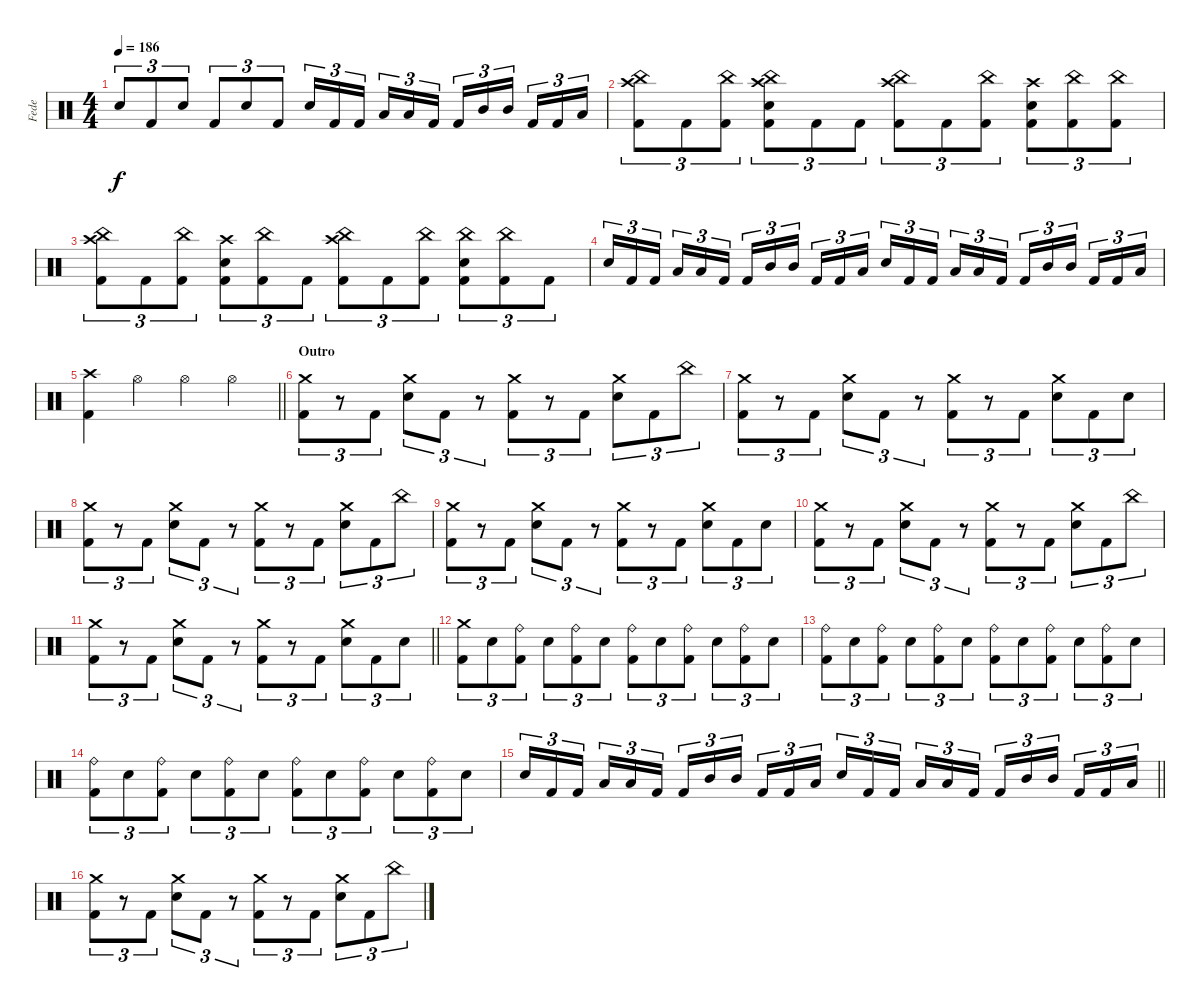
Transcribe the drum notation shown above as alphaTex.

\track ("Fede" "Fede") {instrument percussion}
\staff {score}
\articulation defaults
\ts (4 4)
\tempo 186
\clef neutral
\ks c "Snare (hit) 2".8{tu (3 2) dy f} "Kick (hit) 2".8{tu (3 2)} "Snare (hit) 2".8{tu (3 2)} "Kick (hit) 2".8{tu (3 2)} "Snare (hit) 2".8{tu (3 2)} "Kick (hit) 2".8{tu (3 2)} "Snare (hit) 2".16{tu (3 2)} "Kick (hit) 2".16{tu (3 2)} "Kick (hit) 2".16{tu (3 2) beam splitsecondary} "Low Tom (hit)".16{tu (3 2)} "Low Tom (hit)".16{tu (3 2)} "Kick (hit) 2".16{tu (3 2)} "Kick (hit) 2".16{tu (3 2)} "Mid Tom (hit)".16{tu (3 2)} "Mid Tom (hit)".16{tu (3 2) beam splitsecondary} "Kick (hit) 2".16{tu (3 2)} "Kick (hit) 2".16{tu (3 2)} "Low Tom (hit)".16{tu (3 2)}
|
("Crash high (hit)" "China (hit)" "Kick (hit) 2").8{tu (3 2)} "Kick (hit) 2".8{tu (3 2)} ("China (hit)" "Kick (hit) 2").8{tu (3 2)} ("Crash high (hit)" "China (hit)" "Snare (hit) 2" "Kick (hit) 2").8{tu (3 2)} "Kick (hit) 2".8{tu (3 2)} "Kick (hit) 2".8{tu (3 2)} ("Crash high (hit)" "China (hit)" "Kick (hit) 2").8{tu (3 2)} "Kick (hit) 2".8{tu (3 2)} ("China (hit)" "Kick (hit) 2").8{tu (3 2)} ("Crash high (hit)" "Snare (hit) 2" "Kick (hit) 2").8{tu (3 2)} ("China (hit)" "Kick (hit) 2").8{tu (3 2)} ("China (hit)" "Kick (hit) 2").8{tu (3 2)} |
("Crash high (hit)" "China (hit)" "Kick (hit) 2").8{tu (3 2)} "Kick (hit) 2".8{tu (3 2)} ("China (hit)" "Kick (hit) 2").8{tu (3 2)} ("Crash high (hit)" "Snare (hit) 2" "Kick (hit) 2").8{tu (3 2)} ("China (hit)" "Kick (hit) 2").8{tu (3 2)} "Kick (hit) 2".8{tu (3 2)} ("Crash high (hit)" "China (hit)" "Kick (hit) 2").8{tu (3 2)} "Kick (hit) 2".8{tu (3 2)} ("China (hit)" "Kick (hit) 2").8{tu (3 2)} ("Snare (hit) 2" "China (hit)" "Kick (hit) 2").8{tu (3 2)} ("China (hit)" "Kick (hit) 2").8{tu (3 2)} "Kick (hit) 2".8{tu (3 2)} |
"Snare (hit) 2".16{tu (3 2)} "Kick (hit) 2".16{tu (3 2)} "Kick (hit) 2".16{tu (3 2) beam splitsecondary} "Low Tom (hit)".16{tu (3 2)} "Low Tom (hit)".16{tu (3 2)} "Kick (hit) 2".16{tu (3 2)} "Kick (hit) 2".16{tu (3 2)} "Mid Tom (hit)".16{tu (3 2)} "Mid Tom (hit)".16{tu (3 2) beam splitsecondary} "Kick (hit) 2".16{tu (3 2)} "Kick (hit) 2".16{tu (3 2)} "Low Tom (hit)".16{tu (3 2)} "Snare (hit) 2".16{tu (3 2)} "Kick (hit) 2".16{tu (3 2)} "Kick (hit) 2".16{tu (3 2) beam splitsecondary} "Low Tom (hit)".16{tu (3 2)} "Low Tom (hit)".16{tu (3 2)} "Kick (hit) 2".16{tu (3 2)} "Kick (hit) 2".16{tu (3 2)} "Mid Tom (hit)".16{tu (3 2)} "Mid Tom (hit)".16{tu (3 2) beam splitsecondary} "Kick (hit) 2".16{tu (3 2)} "Kick (hit) 2".16{tu (3 2)} "Low Tom (hit)".16{tu (3 2)} |
\barLineRight lightlight
("Crash high (hit)" "Kick (hit) 2").4 "Hi-Hat (open)".4 "Hi-Hat (open)".4 "Hi-Hat (open)".4 |
\section ("" "Outro")
("Crash medium (hit)" "Kick (hit) 2").8{tu (3 2)} r.8{tu (3 2)} "Kick (hit) 2".8{tu (3 2)} ("Crash medium (hit)" "Snare (hit) 2").8{tu (3 2)} "Kick (hit) 2".8{tu (3 2)} r.8{tu (3 2)} ("Crash medium (hit)" "Kick (hit) 2").8{tu (3 2)} r.8{tu (3 2)} "Kick (hit) 2".8{tu (3 2)} ("Crash medium (hit)" "Snare (hit) 2").8{tu (3 2)} "Kick (hit) 2".8{tu (3 2)} "China (hit)".8{tu (3 2)} |
("Crash medium (hit)" "Kick (hit) 2").8{tu (3 2)} r.8{tu (3 2)} "Kick (hit) 2".8{tu (3 2)} ("Crash medium (hit)" "Snare (hit) 2").8{tu (3 2)} "Kick (hit) 2".8{tu (3 2)} r.8{tu (3 2)} ("Crash medium (hit)" "Kick (hit) 2").8{tu (3 2)} r.8{tu (3 2)} "Kick (hit) 2".8{tu (3 2)} ("Crash medium (hit)" "Snare (hit) 2").8{tu (3 2)} "Kick (hit) 2".8{tu (3 2)} "Snare (hit) 2".8{tu (3 2)} |
("Crash medium (hit)" "Kick (hit) 2").8{tu (3 2)} r.8{tu (3 2)} "Kick (hit) 2".8{tu (3 2)} ("Crash medium (hit)" "Snare (hit) 2").8{tu (3 2)} "Kick (hit) 2".8{tu (3 2)} r.8{tu (3 2)} ("Crash medium (hit)" "Kick (hit) 2").8{tu (3 2)} r.8{tu (3 2)} "Kick (hit) 2".8{tu (3 2)} ("Crash medium (hit)" "Snare (hit) 2").8{tu (3 2)} "Kick (hit) 2".8{tu (3 2)} "China (hit)".8{tu (3 2)} |
("Crash medium (hit)" "Kick (hit) 2").8{tu (3 2)} r.8{tu (3 2)} "Kick (hit) 2".8{tu (3 2)} ("Crash medium (hit)" "Snare (hit) 2").8{tu (3 2)} "Kick (hit) 2".8{tu (3 2)} r.8{tu (3 2)} ("Crash medium (hit)" "Kick (hit) 2").8{tu (3 2)} r.8{tu (3 2)} "Kick (hit) 2".8{tu (3 2)} ("Crash medium (hit)" "Snare (hit) 2").8{tu (3 2)} "Kick (hit) 2".8{tu (3 2)} "Snare (hit) 2".8{tu (3 2)} |
("Crash medium (hit)" "Kick (hit) 2").8{tu (3 2)} r.8{tu (3 2)} "Kick (hit) 2".8{tu (3 2)} ("Crash medium (hit)" "Snare (hit) 2").8{tu (3 2)} "Kick (hit) 2".8{tu (3 2)} r.8{tu (3 2)} ("Crash medium (hit)" "Kick (hit) 2").8{tu (3 2)} r.8{tu (3 2)} "Kick (hit) 2".8{tu (3 2)} ("Crash medium (hit)" "Snare (hit) 2").8{tu (3 2)} "Kick (hit) 2".8{tu (3 2)} "China (hit)".8{tu (3 2)} |
\barLineRight lightlight
("Crash medium (hit)" "Kick (hit) 2").8{tu (3 2)} r.8{tu (3 2)} "Kick (hit) 2".8{tu (3 2)} ("Crash medium (hit)" "Snare (hit) 2").8{tu (3 2)} "Kick (hit) 2".8{tu (3 2)} r.8{tu (3 2)} ("Crash medium (hit)" "Kick (hit) 2").8{tu (3 2)} r.8{tu (3 2)} "Kick (hit) 2".8{tu (3 2)} ("Crash medium (hit)" "Snare (hit) 2").8{tu (3 2)} "Kick (hit) 2".8{tu (3 2)} "Snare (hit) 2".8{tu (3 2)} |
("Crash medium (hit)" "Kick (hit) 2").8{tu (3 2)} "Snare (hit) 2".8{tu (3 2)} ("Ride (bell)" "Kick (hit) 2").8{tu (3 2)} "Snare (hit) 2".8{tu (3 2)} ("Ride (bell)" "Kick (hit) 2").8{tu (3 2)} "Snare (hit) 2".8{tu (3 2)} ("Ride (bell)" "Kick (hit) 2").8{tu (3 2)} "Snare (hit) 2".8{tu (3 2)} ("Ride (bell)" "Kick (hit) 2").8{tu (3 2)} "Snare (hit) 2".8{tu (3 2)} ("Ride (bell)" "Kick (hit) 2").8{tu (3 2)} "Snare (hit) 2".8{tu (3 2)} |
("Ride (bell)" "Kick (hit) 2").8{tu (3 2)} "Snare (hit) 2".8{tu (3 2)} ("Ride (bell)" "Kick (hit) 2").8{tu (3 2)} "Snare (hit) 2".8{tu (3 2)} ("Ride (bell)" "Kick (hit) 2").8{tu (3 2)} "Snare (hit) 2".8{tu (3 2)} ("Ride (bell)" "Kick (hit) 2").8{tu (3 2)} "Snare (hit) 2".8{tu (3 2)} ("Ride (bell)" "Kick (hit) 2").8{tu (3 2)} "Snare (hit) 2".8{tu (3 2)} ("Ride (bell)" "Kick (hit) 2").8{tu (3 2)} "Snare (hit) 2".8{tu (3 2)} |
("Ride (bell)" "Kick (hit) 2").8{tu (3 2)} "Snare (hit) 2".8{tu (3 2)} ("Ride (bell)" "Kick (hit) 2").8{tu (3 2)} "Snare (hit) 2".8{tu (3 2)} ("Ride (bell)" "Kick (hit) 2").8{tu (3 2)} "Snare (hit) 2".8{tu (3 2)} ("Ride (bell)" "Kick (hit) 2").8{tu (3 2)} "Snare (hit) 2".8{tu (3 2)} ("Ride (bell)" "Kick (hit) 2").8{tu (3 2)} "Snare (hit) 2".8{tu (3 2)} ("Ride (bell)" "Kick (hit) 2").8{tu (3 2)} "Snare (hit) 2".8{tu (3 2)} |
\barLineRight lightlight "Snare (hit) 2".16{tu (3 2)} "Kick (hit) 2".16{tu (3 2)} "Kick (hit) 2".16{tu (3 2) beam splitsecondary} "Low Tom (hit)".16{tu (3 2)} "Low Tom (hit)".16{tu (3 2)} "Kick (hit) 2".16{tu (3 2)} "Kick (hit) 2".16{tu (3 2)} "Mid Tom (hit)".16{tu (3 2)} "Mid Tom (hit)".16{tu (3 2) beam splitsecondary} "Kick (hit) 2".16{tu (3 2)} "Kick (hit) 2".16{tu (3 2)} "Low Tom (hit)".16{tu (3 2)} "Snare (hit) 2".16{tu (3 2)} "Kick (hit) 2".16{tu (3 2)} "Kick (hit) 2".16{tu (3 2) beam splitsecondary} "Low Tom (hit)".16{tu (3 2)} "Low Tom (hit)".16{tu (3 2)} "Kick (hit) 2".16{tu (3 2)} "Kick (hit) 2".16{tu (3 2)} "Mid Tom (hit)".16{tu (3 2)} "Mid Tom (hit)".16{tu (3 2) beam splitsecondary} "Kick (hit) 2".16{tu (3 2)} "Kick (hit) 2".16{tu (3 2)} "Low Tom (hit)".16{tu (3 2)}
|
("Crash medium (hit)" "Kick (hit) 2").8{tu (3 2)} r.8{tu (3 2)} "Kick (hit) 2".8{tu (3 2)} ("Crash medium (hit)" "Snare (hit) 2").8{tu (3 2)} "Kick (hit) 2".8{tu (3 2)} r.8{tu (3 2)} ("Crash medium (hit)" "Kick (hit) 2").8{tu (3 2)} r.8{tu (3 2)} "Kick (hit) 2".8{tu (3 2)} ("Crash medium (hit)" "Snare (hit) 2").8{tu (3 2)} "Kick (hit) 2".8{tu (3 2)} "China (hit)".8{tu (3 2)}
